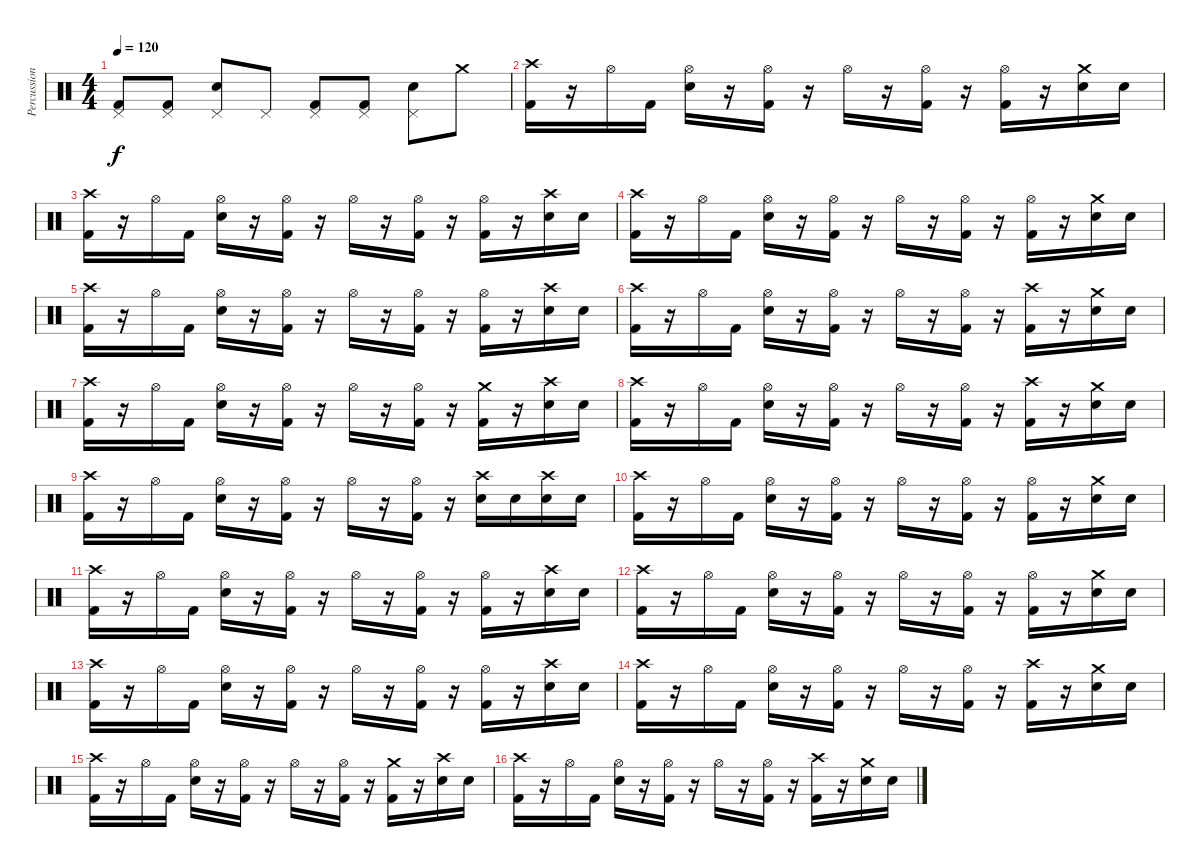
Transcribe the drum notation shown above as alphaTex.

\track ("Percussion" "Percussion") {instrument percussion}
\staff {score}
\articulation defaults
\ts (4 4)
\tempo 120
\clef neutral
\ks c
("Pedal Hi-Hat (hit)" "Kick (hit) 2").8{dy f} ("Pedal Hi-Hat (hit)" "Kick (hit) 2").8 ("Pedal Hi-Hat (hit)" "Snare (hit) 2").8 "Pedal Hi-Hat (hit)".8 ("Pedal Hi-Hat (hit)" "Kick (hit) 2").8 ("Pedal Hi-Hat (hit)" "Kick (hit) 2").8 ("Pedal Hi-Hat (hit)" "Snare (hit) 2").8 "Crash medium (hit)".8 |
("Crash high (hit)" "Kick (hit) 2").16 r.16 "Hi-Hat (open)".16 "Kick (hit) 2".16 ("Hi-Hat (open)" "Snare (hit) 2").16 r.16 ("Hi-Hat (open)" "Kick (hit) 2").16 r.16 "Hi-Hat (open)".16 r.16 ("Hi-Hat (open)" "Kick (hit) 2").16 r.16 ("Hi-Hat (open)" "Kick (hit) 2").16 r.16 ("Crash medium (hit)" "Snare (hit) 2").16 "Snare (hit) 2".16 |
("Crash high (hit)" "Kick (hit) 2").16 r.16 "Hi-Hat (open)".16 "Kick (hit) 2".16 ("Hi-Hat (open)" "Snare (hit) 2").16 r.16 ("Hi-Hat (open)" "Kick (hit) 2").16 r.16 "Hi-Hat (open)".16 r.16 ("Hi-Hat (open)" "Kick (hit) 2").16 r.16 ("Hi-Hat (open)" "Kick (hit) 2").16 r.16 ("Crash high (hit)" "Snare (hit) 2").16 "Snare (hit) 2".16 |
("Crash high (hit)" "Kick (hit) 2").16 r.16 "Hi-Hat (open)".16 "Kick (hit) 2".16 ("Hi-Hat (open)" "Snare (hit) 2").16 r.16 ("Hi-Hat (open)" "Kick (hit) 2").16 r.16 "Hi-Hat (open)".16 r.16 ("Hi-Hat (open)" "Kick (hit) 2").16 r.16 ("Hi-Hat (open)" "Kick (hit) 2").16 r.16 ("Crash medium (hit)" "Snare (hit) 2").16 "Snare (hit) 2".16 |
("Crash high (hit)" "Kick (hit) 2").16 r.16 "Hi-Hat (open)".16 "Kick (hit) 2".16 ("Hi-Hat (open)" "Snare (hit) 2").16 r.16 ("Hi-Hat (open)" "Kick (hit) 2").16 r.16 "Hi-Hat (open)".16 r.16 ("Hi-Hat (open)" "Kick (hit) 2").16 r.16 ("Hi-Hat (open)" "Kick (hit) 2").16 r.16 ("Crash high (hit)" "Snare (hit) 2").16 "Snare (hit) 2".16 |
("Crash high (hit)" "Kick (hit) 2").16 r.16 "Hi-Hat (open)".16 "Kick (hit) 2".16 ("Hi-Hat (open)" "Snare (hit) 2").16 r.16 ("Hi-Hat (open)" "Kick (hit) 2").16 r.16 "Hi-Hat (open)".16 r.16 ("Hi-Hat (open)" "Kick (hit) 2").16 r.16 ("Crash high (hit)" "Kick (hit) 2").16 r.16 ("Crash medium (hit)" "Snare (hit) 2").16 "Snare (hit) 2".16 |
("Crash high (hit)" "Kick (hit) 2").16 r.16 "Hi-Hat (open)".16 "Kick (hit) 2".16 ("Hi-Hat (open)" "Snare (hit) 2").16 r.16 ("Hi-Hat (open)" "Kick (hit) 2").16 r.16 "Hi-Hat (open)".16 r.16 ("Hi-Hat (open)" "Kick (hit) 2").16 r.16 ("Crash medium (hit)" "Kick (hit) 2").16 r.16 ("Crash high (hit)" "Snare (hit) 2").16 "Snare (hit) 2".16 |
("Crash high (hit)" "Kick (hit) 2").16 r.16 "Hi-Hat (open)".16 "Kick (hit) 2".16 ("Hi-Hat (open)" "Snare (hit) 2").16 r.16 ("Hi-Hat (open)" "Kick (hit) 2").16 r.16 "Hi-Hat (open)".16 r.16 ("Hi-Hat (open)" "Kick (hit) 2").16 r.16 ("Crash high (hit)" "Kick (hit) 2").16 r.16 ("Crash medium (hit)" "Snare (hit) 2").16 "Snare (hit) 2".16 |
("Crash high (hit)" "Kick (hit) 2").16 r.16 "Hi-Hat (open)".16 "Kick (hit) 2".16 ("Hi-Hat (open)" "Snare (hit) 2").16 r.16 ("Hi-Hat (open)" "Kick (hit) 2").16 r.16 "Hi-Hat (open)".16 r.16 ("Hi-Hat (open)" "Kick (hit) 2").16 r.16 ("Crash high (hit)" "Snare (hit) 2").16 "Snare (hit) 2".16 ("Crash high (hit)" "Snare (hit) 2").16 "Snare (hit) 2".16 |
("Crash high (hit)" "Kick (hit) 2").16 r.16 "Hi-Hat (open)".16 "Kick (hit) 2".16 ("Hi-Hat (open)" "Snare (hit) 2").16 r.16 ("Hi-Hat (open)" "Kick (hit) 2").16 r.16 "Hi-Hat (open)".16 r.16 ("Hi-Hat (open)" "Kick (hit) 2").16 r.16 ("Hi-Hat (open)" "Kick (hit) 2").16 r.16 ("Crash medium (hit)" "Snare (hit) 2").16 "Snare (hit) 2".16 |
("Crash high (hit)" "Kick (hit) 2").16 r.16 "Hi-Hat (open)".16 "Kick (hit) 2".16 ("Hi-Hat (open)" "Snare (hit) 2").16 r.16 ("Hi-Hat (open)" "Kick (hit) 2").16 r.16 "Hi-Hat (open)".16 r.16 ("Hi-Hat (open)" "Kick (hit) 2").16 r.16 ("Hi-Hat (open)" "Kick (hit) 2").16 r.16 ("Crash high (hit)" "Snare (hit) 2").16 "Snare (hit) 2".16 |
("Crash high (hit)" "Kick (hit) 2").16 r.16 "Hi-Hat (open)".16 "Kick (hit) 2".16 ("Hi-Hat (open)" "Snare (hit) 2").16 r.16 ("Hi-Hat (open)" "Kick (hit) 2").16 r.16 "Hi-Hat (open)".16 r.16 ("Hi-Hat (open)" "Kick (hit) 2").16 r.16 ("Hi-Hat (open)" "Kick (hit) 2").16 r.16 ("Crash medium (hit)" "Snare (hit) 2").16 "Snare (hit) 2".16 |
("Crash high (hit)" "Kick (hit) 2").16 r.16 "Hi-Hat (open)".16 "Kick (hit) 2".16 ("Hi-Hat (open)" "Snare (hit) 2").16 r.16 ("Hi-Hat (open)" "Kick (hit) 2").16 r.16 "Hi-Hat (open)".16 r.16 ("Hi-Hat (open)" "Kick (hit) 2").16 r.16 ("Hi-Hat (open)" "Kick (hit) 2").16 r.16 ("Crash high (hit)" "Snare (hit) 2").16 "Snare (hit) 2".16 |
("Crash high (hit)" "Kick (hit) 2").16 r.16 "Hi-Hat (open)".16 "Kick (hit) 2".16 ("Hi-Hat (open)" "Snare (hit) 2").16 r.16 ("Hi-Hat (open)" "Kick (hit) 2").16 r.16 "Hi-Hat (open)".16 r.16 ("Hi-Hat (open)" "Kick (hit) 2").16 r.16 ("Crash high (hit)" "Kick (hit) 2").16 r.16 ("Crash medium (hit)" "Snare (hit) 2").16 "Snare (hit) 2".16 |
("Crash high (hit)" "Kick (hit) 2").16 r.16 "Hi-Hat (open)".16 "Kick (hit) 2".16 ("Hi-Hat (open)" "Snare (hit) 2").16 r.16 ("Hi-Hat (open)" "Kick (hit) 2").16 r.16 "Hi-Hat (open)".16 r.16 ("Hi-Hat (open)" "Kick (hit) 2").16 r.16 ("Crash medium (hit)" "Kick (hit) 2").16 r.16 ("Crash high (hit)" "Snare (hit) 2").16 "Snare (hit) 2".16 |
("Crash high (hit)" "Kick (hit) 2").16 r.16 "Hi-Hat (open)".16 "Kick (hit) 2".16 ("Hi-Hat (open)" "Snare (hit) 2").16 r.16 ("Hi-Hat (open)" "Kick (hit) 2").16 r.16 "Hi-Hat (open)".16 r.16 ("Hi-Hat (open)" "Kick (hit) 2").16 r.16 ("Crash high (hit)" "Kick (hit) 2").16 r.16 ("Crash medium (hit)" "Snare (hit) 2").16 "Snare (hit) 2".16
